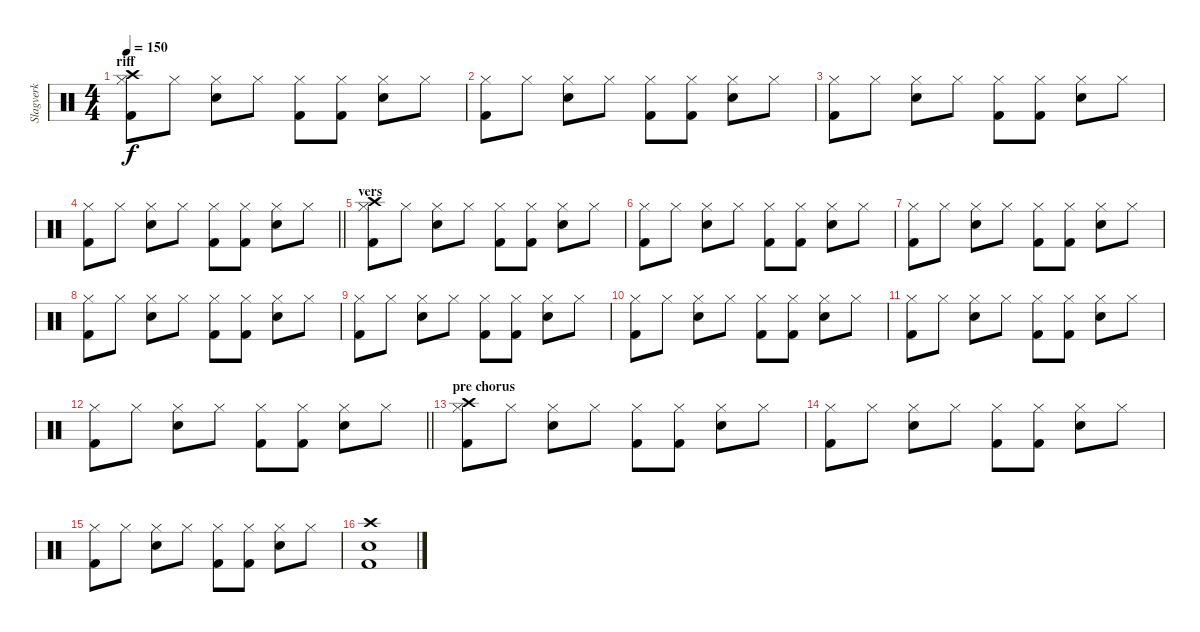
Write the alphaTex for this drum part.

\track ("Slagverk" "Slagverk") {instrument percussion}
\staff {score}
\articulation defaults
\ts (4 4)
\section ("" "riff")
\tempo 150
\clef neutral
\ks c
("Hi-Hat (closed)" "Kick (hit) 2" "Crash high (hit)").8{dy f} "Hi-Hat (closed)".8 ("Hi-Hat (closed)" "Snare (hit) 2").8 "Hi-Hat (closed)".8 ("Hi-Hat (closed)" "Kick (hit) 2").8 ("Hi-Hat (closed)" "Kick (hit) 2").8 ("Hi-Hat (closed)" "Snare (hit) 2").8 "Hi-Hat (closed)".8 |
("Hi-Hat (closed)" "Kick (hit) 2").8 "Hi-Hat (closed)".8 ("Hi-Hat (closed)" "Snare (hit) 2").8 "Hi-Hat (closed)".8 ("Hi-Hat (closed)" "Kick (hit) 2").8 ("Hi-Hat (closed)" "Kick (hit) 2").8 ("Hi-Hat (closed)" "Snare (hit) 2").8 "Hi-Hat (closed)".8 |
("Hi-Hat (closed)" "Kick (hit) 2").8 "Hi-Hat (closed)".8 ("Hi-Hat (closed)" "Snare (hit) 2").8 "Hi-Hat (closed)".8 ("Hi-Hat (closed)" "Kick (hit) 2").8 ("Hi-Hat (closed)" "Kick (hit) 2").8 ("Hi-Hat (closed)" "Snare (hit) 2").8 "Hi-Hat (closed)".8 |
\barLineRight lightlight
("Hi-Hat (closed)" "Kick (hit) 2").8 "Hi-Hat (closed)".8 ("Hi-Hat (closed)" "Snare (hit) 2").8 "Hi-Hat (closed)".8 ("Hi-Hat (closed)" "Kick (hit) 2").8 ("Hi-Hat (closed)" "Kick (hit) 2").8 ("Hi-Hat (closed)" "Snare (hit) 2").8 "Hi-Hat (closed)".8 |
\section ("" "vers")
("Hi-Hat (closed)" "Kick (hit) 2" "Crash high (hit)").8 "Hi-Hat (closed)".8 ("Hi-Hat (closed)" "Snare (hit) 2").8 "Hi-Hat (closed)".8 ("Hi-Hat (closed)" "Kick (hit) 2").8 ("Hi-Hat (closed)" "Kick (hit) 2").8 ("Hi-Hat (closed)" "Snare (hit) 2").8 "Hi-Hat (closed)".8 |
("Hi-Hat (closed)" "Kick (hit) 2").8 "Hi-Hat (closed)".8 ("Hi-Hat (closed)" "Snare (hit) 2").8 "Hi-Hat (closed)".8 ("Hi-Hat (closed)" "Kick (hit) 2").8 ("Hi-Hat (closed)" "Kick (hit) 2").8 ("Hi-Hat (closed)" "Snare (hit) 2").8 "Hi-Hat (closed)".8 |
("Hi-Hat (closed)" "Kick (hit) 2").8 "Hi-Hat (closed)".8 ("Hi-Hat (closed)" "Snare (hit) 2").8 "Hi-Hat (closed)".8 ("Hi-Hat (closed)" "Kick (hit) 2").8 ("Hi-Hat (closed)" "Kick (hit) 2").8 ("Hi-Hat (closed)" "Snare (hit) 2").8 "Hi-Hat (closed)".8 |
("Hi-Hat (closed)" "Kick (hit) 2").8 "Hi-Hat (closed)".8 ("Hi-Hat (closed)" "Snare (hit) 2").8 "Hi-Hat (closed)".8 ("Hi-Hat (closed)" "Kick (hit) 2").8 ("Hi-Hat (closed)" "Kick (hit) 2").8 ("Hi-Hat (closed)" "Snare (hit) 2").8 "Hi-Hat (closed)".8 |
("Hi-Hat (closed)" "Kick (hit) 2").8 "Hi-Hat (closed)".8 ("Hi-Hat (closed)" "Snare (hit) 2").8 "Hi-Hat (closed)".8 ("Hi-Hat (closed)" "Kick (hit) 2").8 ("Hi-Hat (closed)" "Kick (hit) 2").8 ("Hi-Hat (closed)" "Snare (hit) 2").8 "Hi-Hat (closed)".8 |
("Hi-Hat (closed)" "Kick (hit) 2").8 "Hi-Hat (closed)".8 ("Hi-Hat (closed)" "Snare (hit) 2").8 "Hi-Hat (closed)".8 ("Hi-Hat (closed)" "Kick (hit) 2").8 ("Hi-Hat (closed)" "Kick (hit) 2").8 ("Hi-Hat (closed)" "Snare (hit) 2").8 "Hi-Hat (closed)".8 |
("Hi-Hat (closed)" "Kick (hit) 2").8 "Hi-Hat (closed)".8 ("Hi-Hat (closed)" "Snare (hit) 2").8 "Hi-Hat (closed)".8 ("Hi-Hat (closed)" "Kick (hit) 2").8 ("Hi-Hat (closed)" "Kick (hit) 2").8 ("Hi-Hat (closed)" "Snare (hit) 2").8 "Hi-Hat (closed)".8 |
\barLineRight lightlight
("Hi-Hat (closed)" "Kick (hit) 2").8 "Hi-Hat (closed)".8 ("Hi-Hat (closed)" "Snare (hit) 2").8 "Hi-Hat (closed)".8 ("Hi-Hat (closed)" "Kick (hit) 2").8 ("Hi-Hat (closed)" "Kick (hit) 2").8 ("Hi-Hat (closed)" "Snare (hit) 2").8 "Hi-Hat (closed)".8 |
\section ("" "pre chorus")
("Hi-Hat (closed)" "Kick (hit) 2" "Crash high (hit)").8 "Hi-Hat (closed)".8 ("Hi-Hat (closed)" "Snare (hit) 2").8 "Hi-Hat (closed)".8 ("Hi-Hat (closed)" "Kick (hit) 2").8 ("Hi-Hat (closed)" "Kick (hit) 2").8 ("Hi-Hat (closed)" "Snare (hit) 2").8 "Hi-Hat (closed)".8 |
("Hi-Hat (closed)" "Kick (hit) 2").8 "Hi-Hat (closed)".8 ("Hi-Hat (closed)" "Snare (hit) 2").8 "Hi-Hat (closed)".8 ("Hi-Hat (closed)" "Kick (hit) 2").8 ("Hi-Hat (closed)" "Kick (hit) 2").8 ("Hi-Hat (closed)" "Snare (hit) 2").8 "Hi-Hat (closed)".8 |
("Hi-Hat (closed)" "Kick (hit) 2").8 "Hi-Hat (closed)".8 ("Hi-Hat (closed)" "Snare (hit) 2").8 "Hi-Hat (closed)".8 ("Hi-Hat (closed)" "Kick (hit) 2").8 ("Hi-Hat (closed)" "Kick (hit) 2").8 ("Hi-Hat (closed)" "Snare (hit) 2").8 "Hi-Hat (closed)".8 |
("Crash high (hit)" "Snare (hit) 2" "Kick (hit) 2").1
